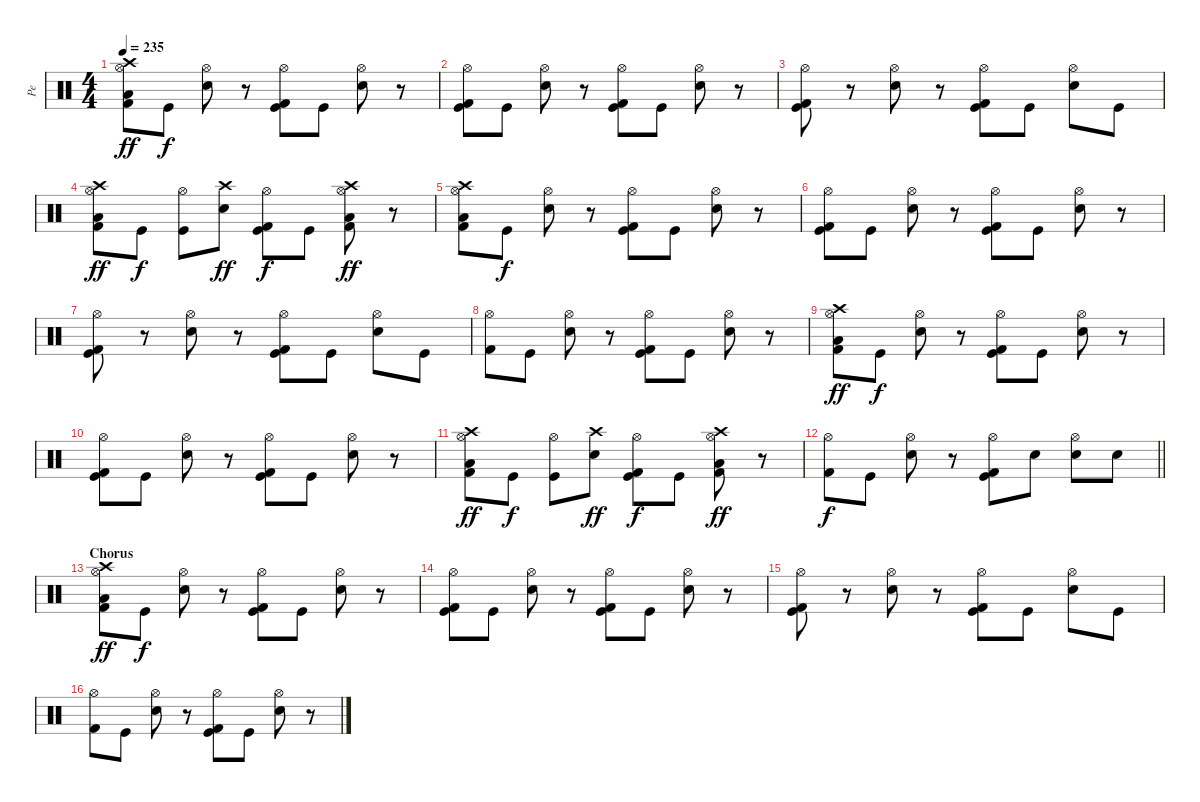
\track ("Pe" "Pe") {instrument percussion}
\staff {score}
\articulation defaults
\ts (4 4)
\tempo 235
\clef neutral
\ks c
("Low Tom (hit)" "Hi-Hat (open)" "Kick (hit) 2" "Crash high (hit)").8{dy ff} "Kick (hit)".8{dy f} ("Electric Snare (hit)" "Hi-Hat (open)").8 r.8 ("Kick (hit)" "Hi-Hat (open)" "Kick (hit) 2").8 "Kick (hit)".8 ("Electric Snare (hit)" "Hi-Hat (open)").8 r.8 |
("Kick (hit)" "Hi-Hat (open)" "Kick (hit) 2").8 "Kick (hit)".8 ("Electric Snare (hit)" "Hi-Hat (open)").8 r.8 ("Kick (hit)" "Hi-Hat (open)" "Kick (hit) 2").8 "Kick (hit)".8 ("Electric Snare (hit)" "Hi-Hat (open)").8 r.8 |
("Kick (hit)" "Hi-Hat (open)" "Kick (hit) 2").8 r.8 ("Electric Snare (hit)" "Hi-Hat (open)").8 r.8 ("Kick (hit)" "Hi-Hat (open)" "Kick (hit) 2").8 "Kick (hit)".8 ("Electric Snare (hit)" "Hi-Hat (open)").8 "Kick (hit)".8 |
("Low Tom (hit)" "Hi-Hat (open)" "Kick (hit) 2" "Crash high (hit)").8{dy ff} "Kick (hit)".8{dy f} ("Kick (hit)" "Hi-Hat (open)").8 ("Crash high (hit)" "Electric Snare (hit)").8{dy ff} ("Kick (hit)" "Hi-Hat (open)" "Kick (hit) 2").8{dy f} "Kick (hit)".8 ("Low Tom (hit)" "Hi-Hat (open)" "Kick (hit) 2" "Crash high (hit)").8{dy ff} r.8 |
("Low Tom (hit)" "Hi-Hat (open)" "Kick (hit) 2" "Crash high (hit)").8 "Kick (hit)".8{dy f} ("Electric Snare (hit)" "Hi-Hat (open)").8 r.8 ("Kick (hit)" "Hi-Hat (open)" "Kick (hit) 2").8 "Kick (hit)".8 ("Electric Snare (hit)" "Hi-Hat (open)").8 r.8 |
("Kick (hit)" "Hi-Hat (open)" "Kick (hit) 2").8 "Kick (hit)".8 ("Electric Snare (hit)" "Hi-Hat (open)").8 r.8 ("Kick (hit)" "Hi-Hat (open)" "Kick (hit) 2").8 "Kick (hit)".8 ("Electric Snare (hit)" "Hi-Hat (open)").8 r.8 |
("Kick (hit)" "Hi-Hat (open)" "Kick (hit) 2").8 r.8 ("Electric Snare (hit)" "Hi-Hat (open)").8 r.8 ("Kick (hit)" "Hi-Hat (open)" "Kick (hit) 2").8 "Kick (hit)".8 ("Electric Snare (hit)" "Hi-Hat (open)").8 "Kick (hit)".8 |
("Hi-Hat (open)" "Kick (hit) 2").8 "Kick (hit)".8 ("Electric Snare (hit)" "Hi-Hat (open)").8 r.8 ("Kick (hit)" "Hi-Hat (open)" "Kick (hit) 2").8 "Kick (hit)".8 ("Electric Snare (hit)" "Hi-Hat (open)").8 r.8 |
("Low Tom (hit)" "Hi-Hat (open)" "Kick (hit) 2" "Crash high (hit)").8{dy ff} "Kick (hit)".8{dy f} ("Electric Snare (hit)" "Hi-Hat (open)").8 r.8 ("Kick (hit)" "Hi-Hat (open)" "Kick (hit) 2").8 "Kick (hit)".8 ("Electric Snare (hit)" "Hi-Hat (open)").8 r.8 |
("Kick (hit)" "Hi-Hat (open)" "Kick (hit) 2").8 "Kick (hit)".8 ("Electric Snare (hit)" "Hi-Hat (open)").8 r.8 ("Kick (hit)" "Hi-Hat (open)" "Kick (hit) 2").8 "Kick (hit)".8 ("Electric Snare (hit)" "Hi-Hat (open)").8 r.8 |
("Low Tom (hit)" "Hi-Hat (open)" "Kick (hit) 2" "Crash high (hit)").8{dy ff} "Kick (hit)".8{dy f} ("Kick (hit)" "Hi-Hat (open)").8 ("Crash high (hit)" "Electric Snare (hit)").8{dy ff} ("Kick (hit)" "Hi-Hat (open)" "Kick (hit) 2").8{dy f} "Kick (hit)".8 ("Low Tom (hit)" "Hi-Hat (open)" "Kick (hit) 2" "Crash high (hit)").8{dy ff} r.8 |
\barLineRight lightlight
("Hi-Hat (open)" "Kick (hit) 2").8{dy f} "Kick (hit)".8 ("Electric Snare (hit)" "Hi-Hat (open)").8 r.8 ("Kick (hit)" "Hi-Hat (open)" "Kick (hit) 2").8 "Electric Snare (hit)".8 ("Electric Snare (hit)" "Hi-Hat (open)").8 "Electric Snare (hit)".8 |
\section ("" "Chorus")
("Low Tom (hit)" "Hi-Hat (open)" "Kick (hit) 2" "Crash high (hit)").8{dy ff} "Kick (hit)".8{dy f} ("Electric Snare (hit)" "Hi-Hat (open)").8 r.8 ("Kick (hit)" "Hi-Hat (open)" "Kick (hit) 2").8 "Kick (hit)".8 ("Electric Snare (hit)" "Hi-Hat (open)").8 r.8 |
("Kick (hit)" "Hi-Hat (open)" "Kick (hit) 2").8 "Kick (hit)".8 ("Electric Snare (hit)" "Hi-Hat (open)").8 r.8 ("Kick (hit)" "Hi-Hat (open)" "Kick (hit) 2").8 "Kick (hit)".8 ("Electric Snare (hit)" "Hi-Hat (open)").8 r.8 |
("Kick (hit)" "Hi-Hat (open)" "Kick (hit) 2").8 r.8 ("Electric Snare (hit)" "Hi-Hat (open)").8 r.8 ("Kick (hit)" "Hi-Hat (open)" "Kick (hit) 2").8 "Kick (hit)".8 ("Electric Snare (hit)" "Hi-Hat (open)").8 "Kick (hit)".8 |
("Hi-Hat (open)" "Kick (hit) 2").8 "Kick (hit)".8 ("Electric Snare (hit)" "Hi-Hat (open)").8 r.8 ("Kick (hit)" "Hi-Hat (open)" "Kick (hit) 2").8 "Kick (hit)".8 ("Electric Snare (hit)" "Hi-Hat (open)").8 r.8
